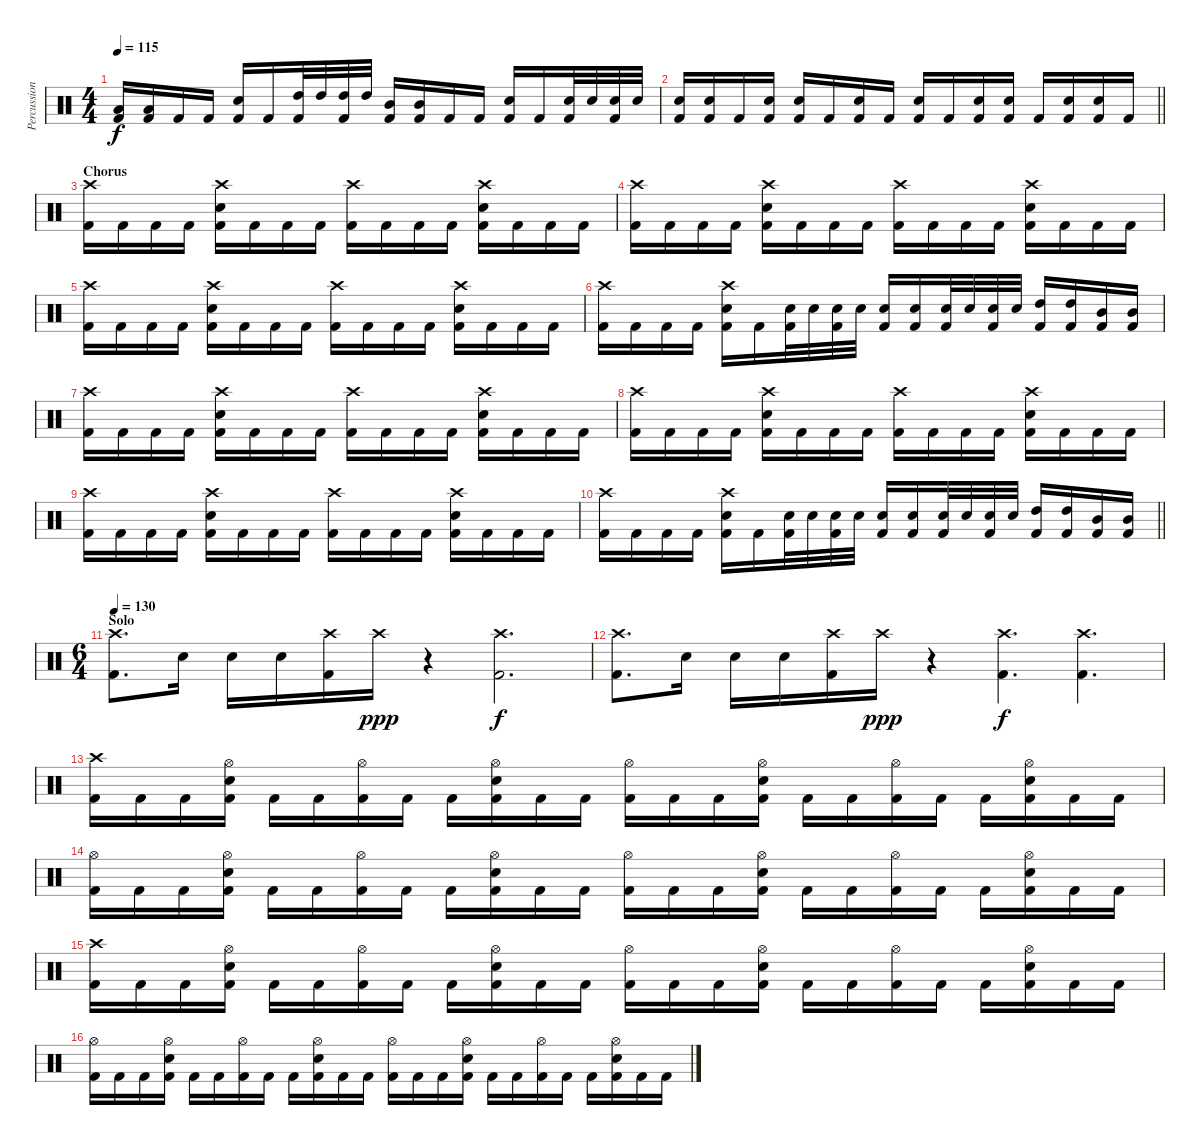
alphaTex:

\track ("Percussion" "Percussion") {mute instrument percussion}
\staff {score}
\articulation defaults
\ts (4 4)
\tempo 115
\clef neutral
\ks c
("Low Tom (hit)" "Kick (hit) 2").16{dy f} ("Low Tom (hit)" "Kick (hit) 2").16 "Kick (hit) 2".16 "Kick (hit) 2".16 ("Electric Snare (hit)" "Kick (hit) 2").16 "Kick (hit) 2".16 ("High Tom (hit)" "Kick (hit) 2").32 "High Tom (hit)".32 ("High Tom (hit)" "Kick (hit) 2").32 "High Tom (hit)".32 ("Mid Tom (hit)" "Kick (hit) 2").16 ("Mid Tom (hit)" "Kick (hit) 2").16 "Kick (hit) 2".16 "Kick (hit) 2".16 ("Electric Snare (hit)" "Kick (hit) 2").16 "Kick (hit) 2".16 ("Electric Snare (hit)" "Kick (hit) 2").32 "Electric Snare (hit)".32 ("Electric Snare (hit)" "Kick (hit) 2").32 "Electric Snare (hit)".32 |
\barLineRight lightlight
("Electric Snare (hit)" "Kick (hit) 2").16 ("Electric Snare (hit)" "Kick (hit) 2").16 "Kick (hit) 2".16 ("Electric Snare (hit)" "Kick (hit) 2").16 ("Electric Snare (hit)" "Kick (hit) 2").16 "Kick (hit) 2".16 ("Electric Snare (hit)" "Kick (hit) 2").16 "Kick (hit) 2".16 ("Electric Snare (hit)" "Kick (hit) 2").16 "Kick (hit) 2".16 ("Electric Snare (hit)" "Kick (hit) 2").16 ("Electric Snare (hit)" "Kick (hit) 2").16 "Kick (hit) 2".16 ("Electric Snare (hit)" "Kick (hit) 2").16 ("Electric Snare (hit)" "Kick (hit) 2").16 "Kick (hit) 2".16 |
\section ("" "Chorus")
("Crash high (hit)" "Kick (hit) 2").16 "Kick (hit) 2".16 "Kick (hit) 2".16 "Kick (hit) 2".16 ("Crash high (hit)" "Electric Snare (hit)" "Kick (hit) 2").16 "Kick (hit) 2".16 "Kick (hit) 2".16 "Kick (hit) 2".16 ("Crash high (hit)" "Kick (hit) 2").16 "Kick (hit) 2".16 "Kick (hit) 2".16 "Kick (hit) 2".16 ("Crash high (hit)" "Electric Snare (hit)" "Kick (hit) 2").16 "Kick (hit) 2".16 "Kick (hit) 2".16 "Kick (hit) 2".16 |
("Crash high (hit)" "Kick (hit) 2").16 "Kick (hit) 2".16 "Kick (hit) 2".16 "Kick (hit) 2".16 ("Crash high (hit)" "Electric Snare (hit)" "Kick (hit) 2").16 "Kick (hit) 2".16 "Kick (hit) 2".16 "Kick (hit) 2".16 ("Crash high (hit)" "Kick (hit) 2").16 "Kick (hit) 2".16 "Kick (hit) 2".16 "Kick (hit) 2".16 ("Crash high (hit)" "Electric Snare (hit)" "Kick (hit) 2").16 "Kick (hit) 2".16 "Kick (hit) 2".16 "Kick (hit) 2".16 |
("Crash high (hit)" "Kick (hit) 2").16 "Kick (hit) 2".16 "Kick (hit) 2".16 "Kick (hit) 2".16 ("Crash high (hit)" "Electric Snare (hit)" "Kick (hit) 2").16 "Kick (hit) 2".16 "Kick (hit) 2".16 "Kick (hit) 2".16 ("Crash high (hit)" "Kick (hit) 2").16 "Kick (hit) 2".16 "Kick (hit) 2".16 "Kick (hit) 2".16 ("Crash high (hit)" "Electric Snare (hit)" "Kick (hit) 2").16 "Kick (hit) 2".16 "Kick (hit) 2".16 "Kick (hit) 2".16 |
("Crash high (hit)" "Kick (hit) 2").16 "Kick (hit) 2".16 "Kick (hit) 2".16 "Kick (hit) 2".16 ("Crash high (hit)" "Electric Snare (hit)" "Kick (hit) 2").16 "Kick (hit) 2".16 ("Electric Snare (hit)" "Kick (hit) 2").32 "Electric Snare (hit)".32 ("Electric Snare (hit)" "Kick (hit) 2").32 "Electric Snare (hit)".32 ("Electric Snare (hit)" "Kick (hit) 2").16 ("Electric Snare (hit)" "Kick (hit) 2").16 ("Electric Snare (hit)" "Kick (hit) 2").32 "Electric Snare (hit)".32 ("Electric Snare (hit)" "Kick (hit) 2").32 "Electric Snare (hit)".32 ("High Tom (hit)" "Kick (hit) 2").16 ("High Tom (hit)" "Kick (hit) 2").16 ("Mid Tom (hit)" "Kick (hit) 2").16 ("Mid Tom (hit)" "Kick (hit) 2").16 |
("Crash high (hit)" "Kick (hit) 2").16 "Kick (hit) 2".16 "Kick (hit) 2".16 "Kick (hit) 2".16 ("Crash high (hit)" "Electric Snare (hit)" "Kick (hit) 2").16 "Kick (hit) 2".16 "Kick (hit) 2".16 "Kick (hit) 2".16 ("Crash high (hit)" "Kick (hit) 2").16 "Kick (hit) 2".16 "Kick (hit) 2".16 "Kick (hit) 2".16 ("Crash high (hit)" "Electric Snare (hit)" "Kick (hit) 2").16 "Kick (hit) 2".16 "Kick (hit) 2".16 "Kick (hit) 2".16 |
("Crash high (hit)" "Kick (hit) 2").16 "Kick (hit) 2".16 "Kick (hit) 2".16 "Kick (hit) 2".16 ("Crash high (hit)" "Electric Snare (hit)" "Kick (hit) 2").16 "Kick (hit) 2".16 "Kick (hit) 2".16 "Kick (hit) 2".16 ("Crash high (hit)" "Kick (hit) 2").16 "Kick (hit) 2".16 "Kick (hit) 2".16 "Kick (hit) 2".16 ("Crash high (hit)" "Electric Snare (hit)" "Kick (hit) 2").16 "Kick (hit) 2".16 "Kick (hit) 2".16 "Kick (hit) 2".16 |
("Crash high (hit)" "Kick (hit) 2").16 "Kick (hit) 2".16 "Kick (hit) 2".16 "Kick (hit) 2".16 ("Crash high (hit)" "Electric Snare (hit)" "Kick (hit) 2").16 "Kick (hit) 2".16 "Kick (hit) 2".16 "Kick (hit) 2".16 ("Crash high (hit)" "Kick (hit) 2").16 "Kick (hit) 2".16 "Kick (hit) 2".16 "Kick (hit) 2".16 ("Crash high (hit)" "Electric Snare (hit)" "Kick (hit) 2").16 "Kick (hit) 2".16 "Kick (hit) 2".16 "Kick (hit) 2".16 |
\barLineRight lightlight
("Crash high (hit)" "Kick (hit) 2").16 "Kick (hit) 2".16 "Kick (hit) 2".16 "Kick (hit) 2".16 ("Crash high (hit)" "Electric Snare (hit)" "Kick (hit) 2").16 "Kick (hit) 2".16 ("Electric Snare (hit)" "Kick (hit) 2").32 "Electric Snare (hit)".32 ("Electric Snare (hit)" "Kick (hit) 2").32 "Electric Snare (hit)".32 ("Electric Snare (hit)" "Kick (hit) 2").16 ("Electric Snare (hit)" "Kick (hit) 2").16 ("Electric Snare (hit)" "Kick (hit) 2").32 "Electric Snare (hit)".32 ("Electric Snare (hit)" "Kick (hit) 2").32 "Electric Snare (hit)".32 ("High Tom (hit)" "Kick (hit) 2").16 ("High Tom (hit)" "Kick (hit) 2").16 ("Mid Tom (hit)" "Kick (hit) 2").16 ("Mid Tom (hit)" "Kick (hit) 2").16 |
\ts (6 4)
\section ("" "Solo")
\tempo 130
("Crash high (hit)" "Kick (hit) 2").8{d} "Electric Snare (hit)".16 "Electric Snare (hit)".16 "Electric Snare (hit)".16 ("Crash high (hit)" "Kick (hit) 2").16 "Crash high (hit)".16{dy ppp} r.4 ("Crash high (hit)" "Kick (hit) 2").2{d dy f} |
("Crash high (hit)" "Kick (hit) 2").8{d} "Electric Snare (hit)".16 "Electric Snare (hit)".16 "Electric Snare (hit)".16 ("Crash high (hit)" "Kick (hit) 2").16 "Crash high (hit)".16{dy ppp} r.4 ("Crash high (hit)" "Kick (hit) 2").4{d dy f} ("Crash high (hit)" "Kick (hit) 2").4{d} |
("Crash high (hit)" "Kick (hit) 2").16 "Kick (hit) 2".16 "Kick (hit) 2".16 ("Hi-Hat (open)" "Electric Snare (hit)" "Kick (hit) 2").16 "Kick (hit) 2".16 "Kick (hit) 2".16 ("Hi-Hat (open)" "Kick (hit) 2").16 "Kick (hit) 2".16 "Kick (hit) 2".16 ("Hi-Hat (open)" "Electric Snare (hit)" "Kick (hit) 2").16 "Kick (hit) 2".16 "Kick (hit) 2".16 ("Hi-Hat (open)" "Kick (hit) 2").16 "Kick (hit) 2".16 "Kick (hit) 2".16 ("Hi-Hat (open)" "Electric Snare (hit)" "Kick (hit) 2").16 "Kick (hit) 2".16 "Kick (hit) 2".16 ("Hi-Hat (open)" "Kick (hit) 2").16 "Kick (hit) 2".16 "Kick (hit) 2".16 ("Hi-Hat (open)" "Electric Snare (hit)" "Kick (hit) 2").16 "Kick (hit) 2".16 "Kick (hit) 2".16 |
("Hi-Hat (open)" "Kick (hit) 2").16 "Kick (hit) 2".16 "Kick (hit) 2".16 ("Hi-Hat (open)" "Electric Snare (hit)" "Kick (hit) 2").16 "Kick (hit) 2".16 "Kick (hit) 2".16 ("Hi-Hat (open)" "Kick (hit) 2").16 "Kick (hit) 2".16 "Kick (hit) 2".16 ("Hi-Hat (open)" "Electric Snare (hit)" "Kick (hit) 2").16 "Kick (hit) 2".16 "Kick (hit) 2".16 ("Hi-Hat (open)" "Kick (hit) 2").16 "Kick (hit) 2".16 "Kick (hit) 2".16 ("Hi-Hat (open)" "Electric Snare (hit)" "Kick (hit) 2").16 "Kick (hit) 2".16 "Kick (hit) 2".16 ("Hi-Hat (open)" "Kick (hit) 2").16 "Kick (hit) 2".16 "Kick (hit) 2".16 ("Hi-Hat (open)" "Electric Snare (hit)" "Kick (hit) 2").16 "Kick (hit) 2".16 "Kick (hit) 2".16 |
("Crash high (hit)" "Kick (hit) 2").16 "Kick (hit) 2".16 "Kick (hit) 2".16 ("Hi-Hat (open)" "Electric Snare (hit)" "Kick (hit) 2").16 "Kick (hit) 2".16 "Kick (hit) 2".16 ("Hi-Hat (open)" "Kick (hit) 2").16 "Kick (hit) 2".16 "Kick (hit) 2".16 ("Hi-Hat (open)" "Electric Snare (hit)" "Kick (hit) 2").16 "Kick (hit) 2".16 "Kick (hit) 2".16 ("Hi-Hat (open)" "Kick (hit) 2").16 "Kick (hit) 2".16 "Kick (hit) 2".16 ("Hi-Hat (open)" "Electric Snare (hit)" "Kick (hit) 2").16 "Kick (hit) 2".16 "Kick (hit) 2".16 ("Hi-Hat (open)" "Kick (hit) 2").16 "Kick (hit) 2".16 "Kick (hit) 2".16 ("Hi-Hat (open)" "Electric Snare (hit)" "Kick (hit) 2").16 "Kick (hit) 2".16 "Kick (hit) 2".16 |
("Hi-Hat (open)" "Kick (hit) 2").16 "Kick (hit) 2".16 "Kick (hit) 2".16 ("Hi-Hat (open)" "Electric Snare (hit)" "Kick (hit) 2").16 "Kick (hit) 2".16 "Kick (hit) 2".16 ("Hi-Hat (open)" "Kick (hit) 2").16 "Kick (hit) 2".16 "Kick (hit) 2".16 ("Hi-Hat (open)" "Electric Snare (hit)" "Kick (hit) 2").16 "Kick (hit) 2".16 "Kick (hit) 2".16 ("Hi-Hat (open)" "Kick (hit) 2").16 "Kick (hit) 2".16 "Kick (hit) 2".16 ("Hi-Hat (open)" "Electric Snare (hit)" "Kick (hit) 2").16 "Kick (hit) 2".16 "Kick (hit) 2".16 ("Hi-Hat (open)" "Kick (hit) 2").16 "Kick (hit) 2".16 "Kick (hit) 2".16 ("Hi-Hat (open)" "Electric Snare (hit)" "Kick (hit) 2").16 "Kick (hit) 2".16 "Kick (hit) 2".16
